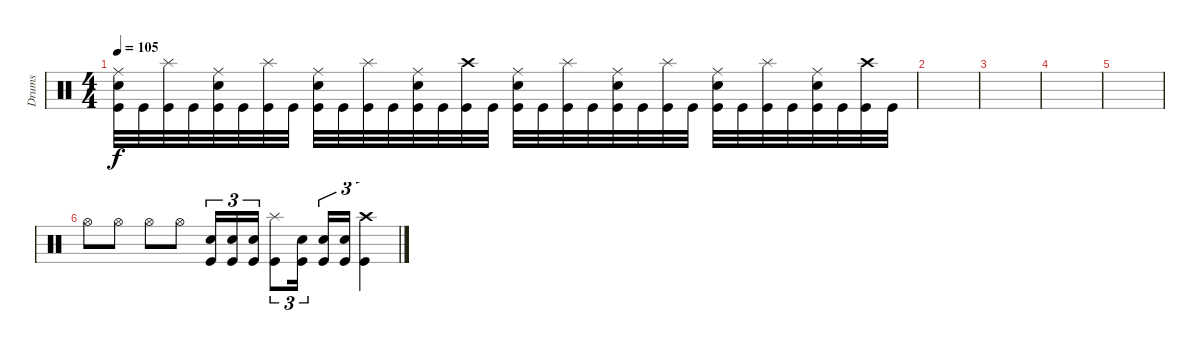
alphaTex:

\track ("Drums" "Drums") {instrument percussion}
\staff {score}
\articulation defaults
\ts (4 4)
\tempo 105
\clef neutral
\ks c
("Ride (middle)" "Snare (hit) 2" "Kick (hit)").32{dy f} "Kick (hit)".32 ("Splash (hit)" "Kick (hit)").32 "Kick (hit)".32 ("Ride (middle)" "Snare (hit) 2" "Kick (hit)").32 "Kick (hit)".32 ("Splash (hit)" "Kick (hit)").32 "Kick (hit)".32 ("Ride (middle)" "Snare (hit) 2" "Kick (hit)").32 "Kick (hit)".32 ("Splash (hit)" "Kick (hit)").32 "Kick (hit)".32 ("Ride (middle)" "Snare (hit) 2" "Kick (hit)").32 "Kick (hit)".32 ("Crash high (hit)" "Kick (hit)").32 "Kick (hit)".32 ("Ride (middle)" "Snare (hit) 2" "Kick (hit)").32 "Kick (hit)".32 ("Splash (hit)" "Kick (hit)").32 "Kick (hit)".32 ("Ride (middle)" "Snare (hit) 2" "Kick (hit)").32 "Kick (hit)".32 ("Splash (hit)" "Kick (hit)").32 "Kick (hit)".32 ("Ride (middle)" "Snare (hit) 2" "Kick (hit)").32 "Kick (hit)".32 ("Splash (hit)" "Kick (hit)").32 "Kick (hit)".32 ("Ride (middle)" "Snare (hit) 2" "Kick (hit)").32 "Kick (hit)".32 ("Crash high (hit)" "Kick (hit)").32 "Kick (hit)".32 |
|
|
|
|
"Hi-Hat (open)".8 "Hi-Hat (open)".8 "Hi-Hat (open)".8 "Hi-Hat (open)".8 ("Snare (hit) 2" "Kick (hit)").16{tu (3 2)} ("Snare (hit) 2" "Kick (hit)").16{tu (3 2)} ("Snare (hit) 2" "Kick (hit)").16{tu (3 2)} ("Splash (hit)" "Kick (hit)").8{tu (3 2)} ("Snare (hit) 2" "Kick (hit)").16{tu (3 2)} ("Snare (hit) 2" "Kick (hit)").16{tu (3 2)} ("Snare (hit) 2" "Kick (hit)").16{tu (3 2)} ("Crash high (hit)" "Kick (hit)").4{tu (3 2)}
